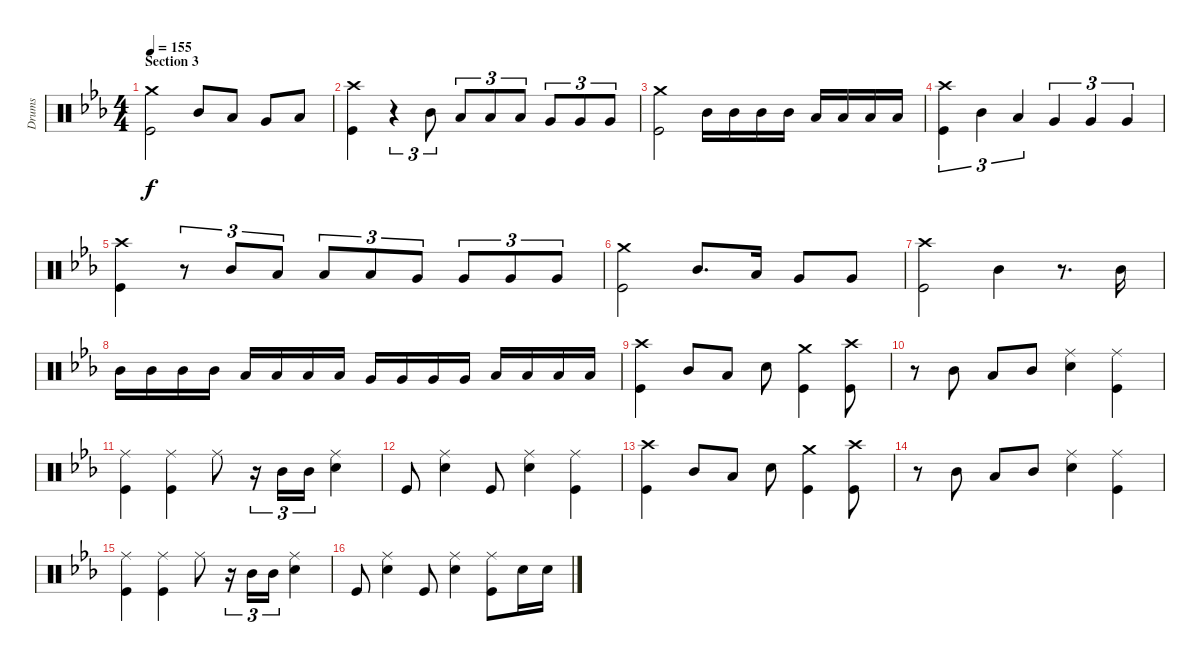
\track ("Drums" "Drums") {instrument percussion}
\staff {score}
\articulation defaults
\ts (4 4)
\section ("" "Section 3")
\tempo 155
\clef neutral
\ks eb
("Crash medium (hit)" "Kick (hit)").2{dy f} "Mid Tom (hit)".8 "Low Tom (hit)".8 "Very Low Tom (hit)".8 "Low Floor Tom (hit)".8 |
("Crash high (hit)" "Kick (hit)").4 r.4{tu (3 2)} "Mid Tom (hit)".8{tu (3 2)} "Low Tom (hit)".8{tu (3 2)} "Low Tom (hit)".8{tu (3 2)} "Low Tom (hit)".8{tu (3 2)} "Very Low Tom (hit)".8{tu (3 2)} "Very Low Tom (hit)".8{tu (3 2)} "Very Low Tom (hit)".8{tu (3 2)} |
("Crash medium (hit)" "Kick (hit)").2 "Mid Tom (hit)".16 "Mid Tom (hit)".16 "Mid Tom (hit)".16 "Mid Tom (hit)".16 "Low Tom (hit)".16 "Low Tom (hit)".16 "Low Tom (hit)".16 "Low Tom (hit)".16 |
("Crash high (hit)" "Kick (hit)").4{tu (3 2)} "Mid Tom (hit)".4{tu (3 2)} "Low Tom (hit)".4{tu (3 2)} "Very Low Tom (hit)".4{tu (3 2)} "Very Low Tom (hit)".4{tu (3 2)} "Very Low Tom (hit)".4{tu (3 2)} |
("Crash high (hit)" "Kick (hit)").4 r.8{tu (3 2)} "Mid Tom (hit)".8{tu (3 2)} "Low Tom (hit)".8{tu (3 2)} "Low Tom (hit)".8{tu (3 2)} "Low Tom (hit)".8{tu (3 2)} "Very Low Tom (hit)".8{tu (3 2)} "Very Low Tom (hit)".8{tu (3 2)} "Very Low Tom (hit)".8{tu (3 2)} "Very Low Tom (hit)".8{tu (3 2)} |
("Crash medium (hit)" "Kick (hit)").2 "Mid Tom (hit)".8{d} "Low Tom (hit)".16 "Very Low Tom (hit)".8 "Very Low Tom (hit)".8 |
("Crash high (hit)" "Kick (hit)").2 "Mid Tom (hit)".4 r.8{d} "Mid Tom (hit)".16 |
"Mid Tom (hit)".16 "Mid Tom (hit)".16 "Mid Tom (hit)".16 "Mid Tom (hit)".16 "Low Tom (hit)".16 "Low Tom (hit)".16 "Low Tom (hit)".16 "Low Tom (hit)".16 "Very Low Tom (hit)".16 "Very Low Tom (hit)".16 "Very Low Tom (hit)".16 "Very Low Tom (hit)".16 "Low Floor Tom (hit)".16 "Low Floor Tom (hit)".16 "Low Floor Tom (hit)".16 "Low Floor Tom (hit)".16 |
("Crash high (hit)" "Kick (hit)").4 "Mid Tom (hit)".8 "Low Tom (hit)".8 "Snare (hit) 2".8 ("Crash medium (hit)" "Kick (hit)").4 ("Crash high (hit)" "Kick (hit)").8 |
r.8 "Mid Tom (hit)".8 "Low Tom (hit)".8 "Mid Tom (hit)".8 ("Ride (middle)" "Snare (hit) 2").4 ("Ride (middle)" "Kick (hit)").4 |
("Ride (middle)" "Kick (hit)").4 ("Ride (middle)" "Kick (hit)").4 "Ride (middle)".8 r.16{tu (3 2)} "Mid Tom (hit)".16{tu (3 2)} "Mid Tom (hit)".16{tu (3 2)} ("Ride (middle)" "Snare (hit) 2").4 |
"Kick (hit)".8 ("Ride (middle)" "Snare (hit) 2").4 "Kick (hit)".8 ("Ride (middle)" "Snare (hit) 2").4 ("Ride (middle)" "Kick (hit)").4 |
("Crash high (hit)" "Kick (hit)").4 "Mid Tom (hit)".8 "Low Tom (hit)".8 "Snare (hit) 2".8 ("Crash medium (hit)" "Kick (hit)").4 ("Crash high (hit)" "Kick (hit)").8 |
r.8 "Mid Tom (hit)".8 "Low Tom (hit)".8 "Mid Tom (hit)".8 ("Ride (middle)" "Snare (hit) 2").4 ("Ride (middle)" "Kick (hit)").4 |
("Ride (middle)" "Kick (hit)").4 ("Ride (middle)" "Kick (hit)").4 "Ride (middle)".8 r.16{tu (3 2)} "Mid Tom (hit)".16{tu (3 2)} "Mid Tom (hit)".16{tu (3 2)} ("Ride (middle)" "Snare (hit) 2").4 |
"Kick (hit)".8 ("Ride (middle)" "Snare (hit) 2").4 "Kick (hit)".8 ("Ride (middle)" "Snare (hit) 2").4 ("Ride (middle)" "Kick (hit)").8 "Snare (hit) 2".16 "Snare (hit) 2".16
